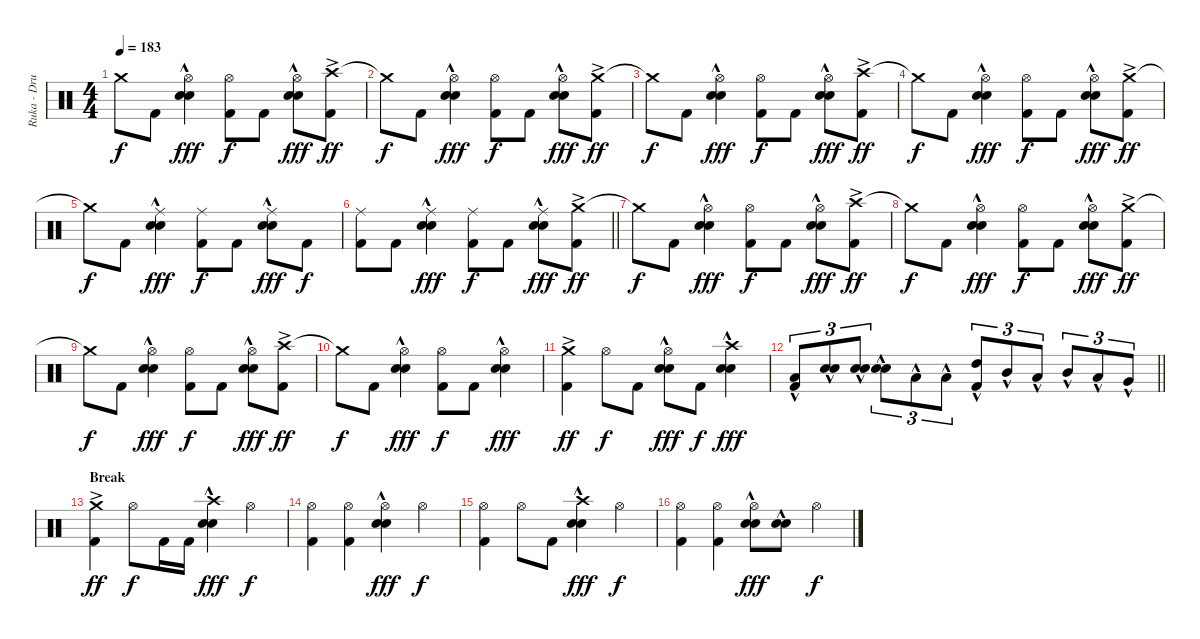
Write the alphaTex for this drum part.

\track ("Ruka - Drums" "Ruka - Dru") {instrument percussion}
\staff {score}
\articulation defaults
\ts (4 4)
\tempo 183
\clef neutral
\ks c "Crash medium (hit)"{t}.8{dy f} "Kick (hit) 2".8
("Hi-Hat (open)" "Electric Snare (hit)"{hac} "Snare (hit) 2"{hac}).4{dy fff} ("Hi-Hat (open)" "Kick (hit) 2").8{dy f} "Kick (hit) 2".8 ("Hi-Hat (open)" "Electric Snare (hit)"{hac} "Snare (hit) 2"{hac}).8{dy fff} ("Crash high (hit)"{ac} "Kick (hit) 2").8{dy ff} |
"Crash medium (hit)"{t}.8{dy f} "Kick (hit) 2".8 ("Hi-Hat (open)" "Electric Snare (hit)"{hac} "Snare (hit) 2"{hac}).4{dy fff} ("Hi-Hat (open)" "Kick (hit) 2").8{dy f} "Kick (hit) 2".8 ("Hi-Hat (open)" "Electric Snare (hit)"{hac} "Snare (hit) 2"{hac}).8{dy fff} ("Crash medium (hit)"{ac} "Kick (hit) 2").8{dy ff} |
"Crash medium (hit)"{t}.8{dy f} "Kick (hit) 2".8 ("Hi-Hat (open)" "Electric Snare (hit)"{hac} "Snare (hit) 2"{hac}).4{dy fff} ("Hi-Hat (open)" "Kick (hit) 2").8{dy f} "Kick (hit) 2".8 ("Hi-Hat (open)" "Electric Snare (hit)"{hac} "Snare (hit) 2"{hac}).8{dy fff} ("Crash high (hit)"{ac} "Kick (hit) 2").8{dy ff} |
"Crash medium (hit)"{t}.8{dy f} "Kick (hit) 2".8 ("Hi-Hat (open)" "Electric Snare (hit)"{hac} "Snare (hit) 2"{hac}).4{dy fff} ("Hi-Hat (open)" "Kick (hit) 2").8{dy f} "Kick (hit) 2".8 ("Hi-Hat (open)" "Electric Snare (hit)"{hac} "Snare (hit) 2"{hac}).8{dy fff} ("Crash medium (hit)"{ac} "Kick (hit) 2").8{dy ff} |
"Crash medium (hit)"{t}.8{dy f} "Kick (hit) 2".8 ("Ride (middle)" "Electric Snare (hit)"{hac} "Snare (hit) 2"{hac}).4{dy fff} ("Ride (middle)" "Kick (hit) 2").8{dy f} "Kick (hit) 2".8 ("Ride (middle)" "Electric Snare (hit)"{hac} "Snare (hit) 2"{hac}).8{dy fff} "Kick (hit) 2".8{dy f} |
\barLineRight lightlight
("Ride (middle)" "Kick (hit) 2").8 "Kick (hit) 2".8 ("Ride (middle)" "Electric Snare (hit)"{hac} "Snare (hit) 2"{hac}).4{dy fff} ("Ride (middle)" "Kick (hit) 2").8{dy f} "Kick (hit) 2".8 ("Ride (middle)" "Electric Snare (hit)"{hac} "Snare (hit) 2"{hac}).8{dy fff} ("Crash medium (hit)"{ac} "Kick (hit) 2").8{dy ff} |
\section ("" "")
"Crash medium (hit)"{t}.8{dy f} "Kick (hit) 2".8 ("Hi-Hat (open)" "Electric Snare (hit)"{hac} "Snare (hit) 2"{hac}).4{dy fff} ("Hi-Hat (open)" "Kick (hit) 2").8{dy f} "Kick (hit) 2".8 ("Hi-Hat (open)" "Electric Snare (hit)"{hac} "Snare (hit) 2"{hac}).8{dy fff} ("Crash high (hit)"{ac} "Kick (hit) 2").8{dy ff} |
"Crash medium (hit)"{t}.8{dy f} "Kick (hit) 2".8 ("Hi-Hat (open)" "Electric Snare (hit)"{hac} "Snare (hit) 2"{hac}).4{dy fff} ("Hi-Hat (open)" "Kick (hit) 2").8{dy f} "Kick (hit) 2".8 ("Hi-Hat (open)" "Electric Snare (hit)"{hac} "Snare (hit) 2"{hac}).8{dy fff} ("Crash medium (hit)"{ac} "Kick (hit) 2").8{dy ff} |
"Crash medium (hit)"{t}.8{dy f} "Kick (hit) 2".8 ("Hi-Hat (open)" "Electric Snare (hit)"{hac} "Snare (hit) 2"{hac}).4{dy fff} ("Hi-Hat (open)" "Kick (hit) 2").8{dy f} "Kick (hit) 2".8 ("Hi-Hat (open)" "Electric Snare (hit)"{hac} "Snare (hit) 2"{hac}).8{dy fff} ("Crash high (hit)"{ac} "Kick (hit) 2").8{dy ff} |
"Crash medium (hit)"{t}.8{dy f} "Kick (hit) 2".8 ("Hi-Hat (open)" "Electric Snare (hit)"{hac} "Snare (hit) 2"{hac}).4{dy fff} ("Hi-Hat (open)" "Kick (hit) 2").8{dy f} "Kick (hit) 2".8 ("Hi-Hat (open)" "Electric Snare (hit)"{hac} "Snare (hit) 2"{hac}).4{dy fff} |
("Crash medium (hit)"{ac} "Kick (hit) 2").4{dy ff} "Hi-Hat (open)".8{dy f} "Kick (hit) 2".8 ("Hi-Hat (open)" "Electric Snare (hit)"{hac} "Snare (hit) 2"{hac}).8{dy fff} "Kick (hit) 2".8{dy f} ("Crash high (hit)" "Electric Snare (hit)"{hac} "Snare (hit) 2"{hac}).4{dy fff} |
\barLineRight lightlight
("Low Tom (hit)"{hac} "Kick (hit) 2").8{tu (3 2)} ("Electric Snare (hit)"{hac} "Snare (hit) 2"{hac}).8{tu (3 2)} ("Electric Snare (hit)"{hac} "Snare (hit) 2"{hac}).8{tu (3 2)} ("Electric Snare (hit)"{hac} "Snare (hit) 2"{hac}).8{tu (3 2)} "Low Tom (hit)"{hac}.8{tu (3 2)} "Low Tom (hit)"{hac}.8{tu (3 2)} ("High Tom (hit)"{hac} "Kick (hit) 2").8{tu (3 2)} "Mid Tom (hit)"{hac}.8{tu (3 2)} "Low Tom (hit)"{hac}.8{tu (3 2)} "Mid Tom (hit)"{hac}.8{tu (3 2)} "Low Tom (hit)"{hac}.8{tu (3 2)} "Very Low Tom (hit)"{hac}.8{tu (3 2)} |
\section ("" "Break")
("Crash medium (hit)"{ac} "Kick (hit) 2").4{dy ff} "Hi-Hat (open)".8{dy f} "Kick (hit) 2".16 "Kick (hit) 2".16 ("Crash high (hit)" "Electric Snare (hit)"{hac} "Snare (hit) 2"{hac}).4{dy fff} "Hi-Hat (open)".4{dy f} |
("Hi-Hat (open)" "Kick (hit) 2").4 ("Hi-Hat (open)" "Kick (hit) 2").4 ("Hi-Hat (open)" "Electric Snare (hit)"{hac} "Snare (hit) 2"{hac}).4{dy fff} "Hi-Hat (open)".4{dy f} |
("Hi-Hat (open)" "Kick (hit) 2").4 "Hi-Hat (open)".8 "Kick (hit) 2".8 ("Crash high (hit)" "Electric Snare (hit)"{hac} "Snare (hit) 2"{hac}).4{dy fff} "Hi-Hat (open)".4{dy f} |
("Hi-Hat (open)" "Kick (hit) 2").4 ("Hi-Hat (open)" "Kick (hit) 2").4 ("Hi-Hat (open)" "Electric Snare (hit)"{hac} "Snare (hit) 2"{hac}).8{dy fff} ("Electric Snare (hit)"{hac} "Snare (hit) 2"{hac}).8 "Hi-Hat (open)".4{dy f}
